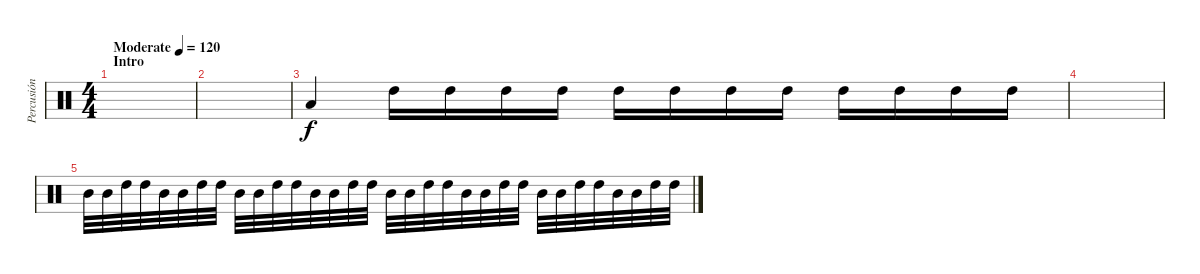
\track ("Percusión" "Percusión") {instrument percussion}
\staff {score}
\articulation defaults
\ts (4 4)
\section ("" "Intro")
\tempo (120 "Moderate")
\clef neutral
\ks c
|
|
"Low Tom (hit)".4 "High Tom (hit)".16 "High Tom (hit)".16 "High Tom (hit)".16 "High Tom (hit)".16 "High Tom (hit)".16 "High Tom (hit)".16 "High Tom (hit)".16 "High Tom (hit)".16 "High Tom (hit)".16 "High Tom (hit)".16 "High Tom (hit)".16 "High Tom (hit)".16 |
|
"Mid Tom (hit)".32 "Mid Tom (hit)".32 "High Tom (hit)".32 "High Tom (hit)".32 "Mid Tom (hit)".32 "Mid Tom (hit)".32 "High Tom (hit)".32 "High Tom (hit)".32 "Mid Tom (hit)".32 "Mid Tom (hit)".32 "High Tom (hit)".32 "High Tom (hit)".32 "Mid Tom (hit)".32 "Mid Tom (hit)".32 "High Tom (hit)".32 "High Tom (hit)".32 "Mid Tom (hit)".32 "Mid Tom (hit)".32 "High Tom (hit)".32 "High Tom (hit)".32 "Mid Tom (hit)".32 "Mid Tom (hit)".32 "High Tom (hit)".32 "High Tom (hit)".32 "Mid Tom (hit)".32 "Mid Tom (hit)".32 "High Tom (hit)".32 "High Tom (hit)".32 "Mid Tom (hit)".32 "Mid Tom (hit)".32 "High Tom (hit)".32 "High Tom (hit)".32
